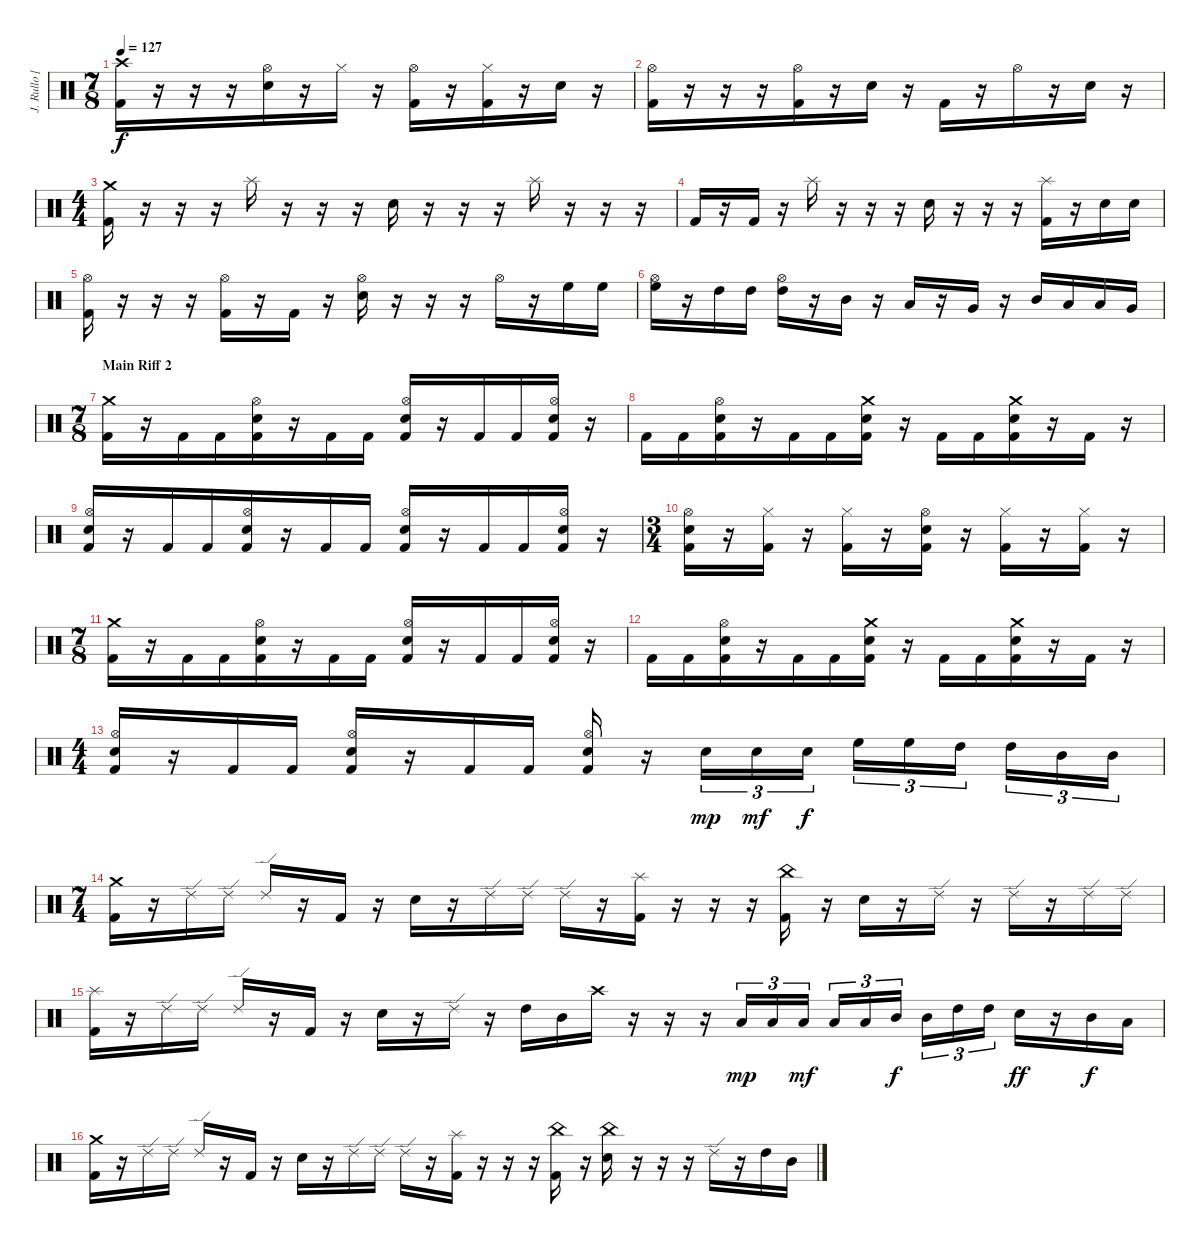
\track ("J. Rullo [Drums]" "J. Rullo [") {instrument percussion}
\staff {score}
\articulation defaults
\ts (7 8)
\tempo 127
\clef neutral
\ks c
("Crash high (hit)" "Kick (hit) 2").16{dy f} r.16 r.16 r.16 ("Hi-Hat (open)" "Electric Snare (hit)").16 r.16 "Hi-Hat (closed)".16 r.16 ("Hi-Hat (open)" "Kick (hit) 2").16 r.16 ("Hi-Hat (closed)" "Kick (hit) 2").16 r.16 "Electric Snare (hit)".16 r.16 |
("Hi-Hat (open)" "Kick (hit) 2").16 r.16 r.16 r.16 ("Hi-Hat (open)" "Kick (hit) 2").16 r.16 "Electric Snare (hit)".16 r.16 "Kick (hit) 2".16 r.16 "Hi-Hat (open)".16 r.16 "Electric Snare (hit)".16 r.16 |
\ts (4 4)
("Crash medium (hit)" "Kick (hit) 2").16 r.16 r.16 r.16 "Splash (hit)".16 r.16 r.16 r.16 "Electric Snare (hit)".16 r.16 r.16 r.16 "Splash (hit)".16 r.16 r.16 r.16 |
"Kick (hit) 2".16 r.16 "Kick (hit) 2".16 r.16 "Splash (hit)".16 r.16 r.16 r.16 "Electric Snare (hit)".16 r.16 r.16 r.16 ("Splash (hit)" "Kick (hit) 2").16 r.16 "Electric Snare (hit)".16 "Electric Snare (hit)".16 |
("Hi-Hat (open)" "Kick (hit) 2").16 r.16 r.16 r.16 ("Hi-Hat (open)" "Kick (hit) 2").16 r.16 "Kick (hit) 2".16 r.16 ("Hi-Hat (open)" "Electric Snare (hit)").16 r.16 r.16 r.16 "Hi-Hat (open)".16 r.16 "High Floor Tom (hit)".16 "High Floor Tom (hit)".16 |
("Hi-Hat (open)" "High Floor Tom (hit)").16 r.16 "High Tom (hit)".16 "High Tom (hit)".16 ("Hi-Hat (open)" "High Tom (hit)").16 r.16 "Mid Tom (hit)".16 r.16 "Low Tom (hit)".16 r.16 "Very Low Tom (hit)".16 r.16 "Mid Tom (hit)".16 "Low Tom (hit)".16 "Low Tom (hit)".16 "Very Low Tom (hit)".16 |
\ts (7 8)
\section ("" "Main Riff 2")
("Crash medium (hit)" "Kick (hit) 2").16 r.16 "Kick (hit) 2".16 "Kick (hit) 2".16 ("Hi-Hat (open)" "Electric Snare (hit)" "Kick (hit) 2").16 r.16 "Kick (hit) 2".16 "Kick (hit) 2".16 ("Hi-Hat (open)" "Electric Snare (hit)" "Kick (hit) 2").16 r.16 "Kick (hit) 2".16 "Kick (hit) 2".16 ("Hi-Hat (open)" "Electric Snare (hit)" "Kick (hit) 2").16 r.16 |
"Kick (hit) 2".16 "Kick (hit) 2".16 ("Hi-Hat (open)" "Electric Snare (hit)" "Kick (hit) 2").16 r.16 "Kick (hit) 2".16 "Kick (hit) 2".16 ("Crash medium (hit)" "Electric Snare (hit)" "Kick (hit) 2").16 r.16 "Kick (hit) 2".16 "Kick (hit) 2".16 ("Crash medium (hit)" "Electric Snare (hit)" "Kick (hit) 2").16 r.16 "Kick (hit) 2".16 r.16 |
("Hi-Hat (open)" "Electric Snare (hit)" "Kick (hit) 2").16 r.16 "Kick (hit) 2".16 "Kick (hit) 2".16 ("Hi-Hat (open)" "Electric Snare (hit)" "Kick (hit) 2").16 r.16 "Kick (hit) 2".16 "Kick (hit) 2".16 ("Hi-Hat (open)" "Electric Snare (hit)" "Kick (hit) 2").16 r.16 "Kick (hit) 2".16 "Kick (hit) 2".16 ("Hi-Hat (open)" "Electric Snare (hit)" "Kick (hit) 2").16 r.16 |
\ts (3 4)
("Hi-Hat (open)" "Electric Snare (hit)" "Kick (hit) 2").16 r.16 ("Hi-Hat (closed)" "Kick (hit) 2").16 r.16 ("Hi-Hat (closed)" "Kick (hit) 2").16 r.16 ("Hi-Hat (open)" "Electric Snare (hit)" "Kick (hit) 2").16 r.16 ("Hi-Hat (closed)" "Kick (hit) 2").16 r.16 ("Hi-Hat (closed)" "Kick (hit) 2").16 r.16 |
\ts (7 8)
("Crash medium (hit)" "Kick (hit) 2").16 r.16 "Kick (hit) 2".16 "Kick (hit) 2".16 ("Hi-Hat (open)" "Electric Snare (hit)" "Kick (hit) 2").16 r.16 "Kick (hit) 2".16 "Kick (hit) 2".16 ("Hi-Hat (open)" "Electric Snare (hit)" "Kick (hit) 2").16 r.16 "Kick (hit) 2".16 "Kick (hit) 2".16 ("Hi-Hat (open)" "Electric Snare (hit)" "Kick (hit) 2").16 r.16 |
"Kick (hit) 2".16 "Kick (hit) 2".16 ("Hi-Hat (open)" "Electric Snare (hit)" "Kick (hit) 2").16 r.16 "Kick (hit) 2".16 "Kick (hit) 2".16 ("Crash medium (hit)" "Electric Snare (hit)" "Kick (hit) 2").16 r.16 "Kick (hit) 2".16 "Kick (hit) 2".16 ("Crash medium (hit)" "Electric Snare (hit)" "Kick (hit) 2").16 r.16 "Kick (hit) 2".16 r.16 |
\ts (4 4)
("Hi-Hat (open)" "Electric Snare (hit)" "Kick (hit) 2").16 r.16 "Kick (hit) 2".16 "Kick (hit) 2".16 ("Hi-Hat (open)" "Electric Snare (hit)" "Kick (hit) 2").16 r.16 "Kick (hit) 2".16 "Kick (hit) 2".16 ("Hi-Hat (open)" "Electric Snare (hit)" "Kick (hit) 2").16 r.16 "Electric Snare (hit)".16{tu (3 2) dy mp} "Electric Snare (hit)".16{tu (3 2) dy mf} "Electric Snare (hit)".16{tu (3 2) dy f} "High Floor Tom (hit)".16{tu (3 2)} "High Floor Tom (hit)".16{tu (3 2)} "High Tom (hit)".16{tu (3 2)} "High Tom (hit)".16{tu (3 2)} "Mid Tom (hit)".16{tu (3 2)} "Mid Tom (hit)".16{tu (3 2)} |
\ts (7 4)
("Crash medium (hit)" "Kick (hit) 2").16 r.16 "Ride (edge) 2".16 "Ride (edge) 2".16 "Ride (edge) 2".16 r.16 "Kick (hit) 2".16 r.16 "Electric Snare (hit)".16 r.16 "Ride (edge) 2".16 "Ride (edge) 2".16 "Ride (edge) 2".16 r.16 ("Splash (hit)" "Kick (hit) 2").16 r.16 r.16 r.16 ("China (hit)" "Kick (hit) 2").16 r.16 "Electric Snare (hit)".16 r.16 "Ride (edge) 2".16 r.16 "Ride (edge) 2".16 r.16 "Ride (edge) 2".16 "Ride (edge) 2".16 |
("Splash (hit)" "Kick (hit) 2").16 r.16 "Ride (edge) 2".16 "Ride (edge) 2".16 "Ride (edge) 2".16 r.16 "Kick (hit) 2".16 r.16 "Electric Snare (hit)".16 r.16 "Ride (edge) 2".16 r.16 "High Tom (hit)".16 "Mid Tom (hit)".16 "Crash high (hit)".16 r.16 r.16 r.16 "Low Tom (hit)".16{tu (3 2) dy mp} "Low Tom (hit)".16{tu (3 2)} "Low Tom (hit)".16{tu (3 2) dy mf} "Low Tom (hit)".16{tu (3 2)} "Low Tom (hit)".16{tu (3 2)} "Mid Tom (hit)".16{tu (3 2) dy f} "Mid Tom (hit)".16{tu (3 2)} "High Tom (hit)".16{tu (3 2)} "High Tom (hit)".16{tu (3 2)} "Electric Snare (hit)".16{dy ff} r.16 "Mid Tom (hit)".16{dy f} "Low Tom (hit)".16 |
("Crash medium (hit)" "Kick (hit) 2").16 r.16 "Ride (edge) 2".16 "Ride (edge) 2".16 "Ride (edge) 2".16 r.16 "Kick (hit) 2".16 r.16 "Electric Snare (hit)".16 r.16 "Ride (edge) 2".16 "Ride (edge) 2".16 "Ride (edge) 2".16 r.16 ("Splash (hit)" "Kick (hit) 2").16 r.16 r.16 r.16 ("China (hit)" "Kick (hit) 2").16 r.16 ("China (hit)" "Electric Snare (hit)").16 r.16 r.16 r.16 "Ride (edge) 2".16 r.16 "High Tom (hit)".16 "Mid Tom (hit)".16
